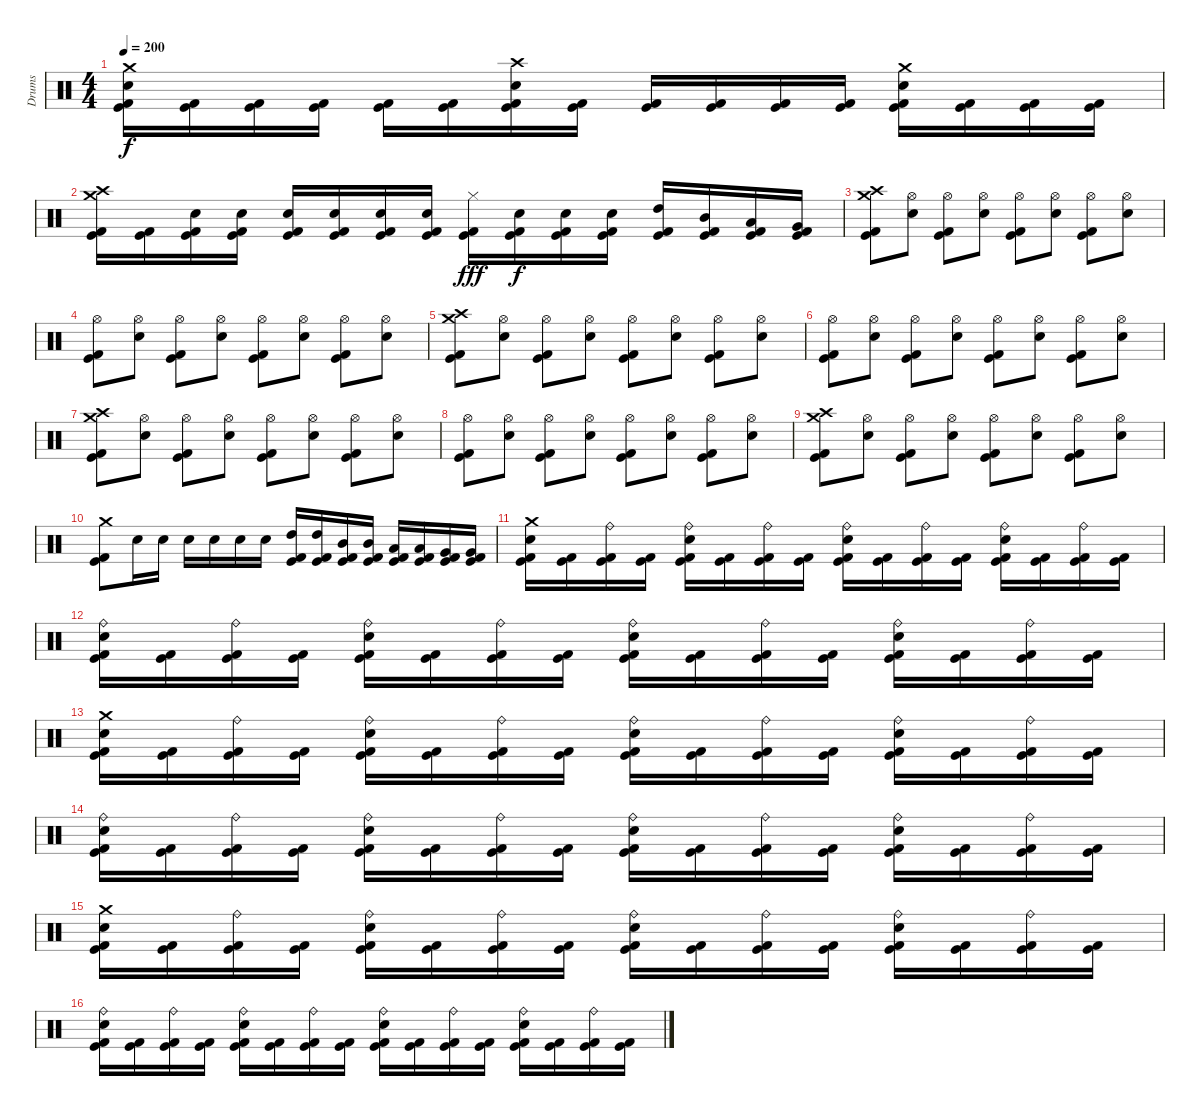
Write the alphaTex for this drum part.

\track ("Drums" "Drums") {instrument percussion}
\staff {score}
\articulation defaults
\ts (4 4)
\tempo 200
\clef neutral
\ks c
("Crash medium (hit)" "Electric Snare (hit)" "Kick (hit)" "Kick (hit) 2").16{dy f} ("Kick (hit)" "Kick (hit) 2").16 ("Kick (hit)" "Kick (hit) 2").16 ("Kick (hit)" "Kick (hit) 2").16 ("Kick (hit)" "Kick (hit) 2").16 ("Kick (hit)" "Kick (hit) 2").16 ("Crash high (hit)" "Electric Snare (hit)" "Kick (hit)" "Kick (hit) 2").16 ("Kick (hit)" "Kick (hit) 2").16 ("Kick (hit)" "Kick (hit) 2").16 ("Kick (hit)" "Kick (hit) 2").16 ("Kick (hit)" "Kick (hit) 2").16 ("Kick (hit)" "Kick (hit) 2").16 ("Crash medium (hit)" "Electric Snare (hit)" "Kick (hit)" "Kick (hit) 2").16 ("Kick (hit)" "Kick (hit) 2").16 ("Kick (hit)" "Kick (hit) 2").16 ("Kick (hit)" "Kick (hit) 2").16 |
("Crash medium (hit)" "Crash high (hit)" "Kick (hit)" "Kick (hit) 2").16 ("Kick (hit)" "Kick (hit) 2").16 ("Electric Snare (hit)" "Kick (hit)" "Kick (hit) 2").16 ("Electric Snare (hit)" "Kick (hit)" "Kick (hit) 2").16 ("Electric Snare (hit)" "Kick (hit)" "Kick (hit) 2").16 ("Electric Snare (hit)" "Kick (hit)" "Kick (hit) 2").16 ("Electric Snare (hit)" "Kick (hit)" "Kick (hit) 2").16 ("Electric Snare (hit)" "Kick (hit)" "Kick (hit) 2").16 ("Hi-Hat (closed)" "Kick (hit)" "Kick (hit) 2").16{dy fff} ("Electric Snare (hit)" "Kick (hit)" "Kick (hit) 2").16{dy f} ("Electric Snare (hit)" "Kick (hit)" "Kick (hit) 2").16 ("Electric Snare (hit)" "Kick (hit)" "Kick (hit) 2").16 ("High Tom (hit)" "Kick (hit)" "Kick (hit) 2").16 ("Mid Tom (hit)" "Kick (hit)" "Kick (hit) 2").16 ("Low Tom (hit)" "Kick (hit)" "Kick (hit) 2").16 ("Very Low Tom (hit)" "Kick (hit)" "Kick (hit) 2").16 |
("Crash medium (hit)" "Crash high (hit)" "Kick (hit)" "Kick (hit) 2").8 ("Hi-Hat (open)" "Electric Snare (hit)").8 ("Hi-Hat (open)" "Kick (hit)" "Kick (hit) 2").8 ("Hi-Hat (open)" "Electric Snare (hit)").8 ("Hi-Hat (open)" "Kick (hit)" "Kick (hit) 2").8 ("Hi-Hat (open)" "Electric Snare (hit)").8 ("Hi-Hat (open)" "Kick (hit)" "Kick (hit) 2").8 ("Hi-Hat (open)" "Electric Snare (hit)").8 |
("Hi-Hat (open)" "Kick (hit)" "Kick (hit) 2").8 ("Hi-Hat (open)" "Electric Snare (hit)").8 ("Hi-Hat (open)" "Kick (hit)" "Kick (hit) 2").8 ("Hi-Hat (open)" "Electric Snare (hit)").8 ("Hi-Hat (open)" "Kick (hit)" "Kick (hit) 2").8 ("Hi-Hat (open)" "Electric Snare (hit)").8 ("Hi-Hat (open)" "Kick (hit)" "Kick (hit) 2").8 ("Hi-Hat (open)" "Electric Snare (hit)").8 |
("Crash medium (hit)" "Crash high (hit)" "Kick (hit)" "Kick (hit) 2").8 ("Hi-Hat (open)" "Electric Snare (hit)").8 ("Hi-Hat (open)" "Kick (hit)" "Kick (hit) 2").8 ("Hi-Hat (open)" "Electric Snare (hit)").8 ("Hi-Hat (open)" "Kick (hit)" "Kick (hit) 2").8 ("Hi-Hat (open)" "Electric Snare (hit)").8 ("Hi-Hat (open)" "Kick (hit)" "Kick (hit) 2").8 ("Hi-Hat (open)" "Electric Snare (hit)").8 |
("Hi-Hat (open)" "Kick (hit)" "Kick (hit) 2").8 ("Hi-Hat (open)" "Electric Snare (hit)").8 ("Hi-Hat (open)" "Kick (hit)" "Kick (hit) 2").8 ("Hi-Hat (open)" "Electric Snare (hit)").8 ("Hi-Hat (open)" "Kick (hit)" "Kick (hit) 2").8 ("Hi-Hat (open)" "Electric Snare (hit)").8 ("Hi-Hat (open)" "Kick (hit)" "Kick (hit) 2").8 ("Hi-Hat (open)" "Electric Snare (hit)").8 |
("Crash medium (hit)" "Crash high (hit)" "Kick (hit)" "Kick (hit) 2").8 ("Hi-Hat (open)" "Electric Snare (hit)").8 ("Hi-Hat (open)" "Kick (hit)" "Kick (hit) 2").8 ("Hi-Hat (open)" "Electric Snare (hit)").8 ("Hi-Hat (open)" "Kick (hit)" "Kick (hit) 2").8 ("Hi-Hat (open)" "Electric Snare (hit)").8 ("Hi-Hat (open)" "Kick (hit)" "Kick (hit) 2").8 ("Hi-Hat (open)" "Electric Snare (hit)").8 |
("Hi-Hat (open)" "Kick (hit)" "Kick (hit) 2").8 ("Hi-Hat (open)" "Electric Snare (hit)").8 ("Hi-Hat (open)" "Kick (hit)" "Kick (hit) 2").8 ("Hi-Hat (open)" "Electric Snare (hit)").8 ("Hi-Hat (open)" "Kick (hit)" "Kick (hit) 2").8 ("Hi-Hat (open)" "Electric Snare (hit)").8 ("Hi-Hat (open)" "Kick (hit)" "Kick (hit) 2").8 ("Hi-Hat (open)" "Electric Snare (hit)").8 |
("Crash medium (hit)" "Crash high (hit)" "Kick (hit)" "Kick (hit) 2").8 ("Hi-Hat (open)" "Electric Snare (hit)").8 ("Hi-Hat (open)" "Kick (hit)" "Kick (hit) 2").8 ("Hi-Hat (open)" "Electric Snare (hit)").8 ("Hi-Hat (open)" "Kick (hit)" "Kick (hit) 2").8 ("Hi-Hat (open)" "Electric Snare (hit)").8 ("Hi-Hat (open)" "Kick (hit)" "Kick (hit) 2").8 ("Hi-Hat (open)" "Electric Snare (hit)").8 |
("Crash medium (hit)" "Kick (hit)" "Kick (hit) 2").8 "Electric Snare (hit)".16 "Electric Snare (hit)".16 "Electric Snare (hit)".16 "Electric Snare (hit)".16 "Electric Snare (hit)".16 "Electric Snare (hit)".16 ("High Tom (hit)" "Kick (hit)" "Kick (hit) 2").16 ("High Tom (hit)" "Kick (hit)" "Kick (hit) 2").16 ("Mid Tom (hit)" "Kick (hit)" "Kick (hit) 2").16 ("Mid Tom (hit)" "Kick (hit)" "Kick (hit) 2").16 ("Low Tom (hit)" "Kick (hit)" "Kick (hit) 2").16 ("Low Tom (hit)" "Kick (hit)" "Kick (hit) 2").16 ("Very Low Tom (hit)" "Kick (hit)" "Kick (hit) 2").16 ("Very Low Tom (hit)" "Kick (hit)" "Kick (hit) 2").16 |
("Crash medium (hit)" "Electric Snare (hit)" "Kick (hit)" "Kick (hit) 2").16 ("Kick (hit)" "Kick (hit) 2").16 ("Ride (bell)" "Kick (hit)" "Kick (hit) 2").16 ("Kick (hit)" "Kick (hit) 2").16 ("Ride (bell)" "Electric Snare (hit)" "Kick (hit)" "Kick (hit) 2").16 ("Kick (hit)" "Kick (hit) 2").16 ("Ride (bell)" "Kick (hit)" "Kick (hit) 2").16 ("Kick (hit)" "Kick (hit) 2").16 ("Ride (bell)" "Electric Snare (hit)" "Kick (hit)" "Kick (hit) 2").16 ("Kick (hit)" "Kick (hit) 2").16 ("Ride (bell)" "Kick (hit)" "Kick (hit) 2").16 ("Kick (hit)" "Kick (hit) 2").16 ("Ride (bell)" "Electric Snare (hit)" "Kick (hit)" "Kick (hit) 2").16 ("Kick (hit)" "Kick (hit) 2").16 ("Ride (bell)" "Kick (hit)" "Kick (hit) 2").16 ("Kick (hit)" "Kick (hit) 2").16 |
("Ride (bell)" "Electric Snare (hit)" "Kick (hit)" "Kick (hit) 2").16 ("Kick (hit)" "Kick (hit) 2").16 ("Ride (bell)" "Kick (hit)" "Kick (hit) 2").16 ("Kick (hit)" "Kick (hit) 2").16 ("Ride (bell)" "Electric Snare (hit)" "Kick (hit)" "Kick (hit) 2").16 ("Kick (hit)" "Kick (hit) 2").16 ("Ride (bell)" "Kick (hit)" "Kick (hit) 2").16 ("Kick (hit)" "Kick (hit) 2").16 ("Ride (bell)" "Electric Snare (hit)" "Kick (hit)" "Kick (hit) 2").16 ("Kick (hit)" "Kick (hit) 2").16 ("Ride (bell)" "Kick (hit)" "Kick (hit) 2").16 ("Kick (hit)" "Kick (hit) 2").16 ("Ride (bell)" "Electric Snare (hit)" "Kick (hit)" "Kick (hit) 2").16 ("Kick (hit)" "Kick (hit) 2").16 ("Ride (bell)" "Kick (hit)" "Kick (hit) 2").16 ("Kick (hit)" "Kick (hit) 2").16 |
("Crash medium (hit)" "Electric Snare (hit)" "Kick (hit)" "Kick (hit) 2").16 ("Kick (hit)" "Kick (hit) 2").16 ("Ride (bell)" "Kick (hit)" "Kick (hit) 2").16 ("Kick (hit)" "Kick (hit) 2").16 ("Ride (bell)" "Electric Snare (hit)" "Kick (hit)" "Kick (hit) 2").16 ("Kick (hit)" "Kick (hit) 2").16 ("Ride (bell)" "Kick (hit)" "Kick (hit) 2").16 ("Kick (hit)" "Kick (hit) 2").16 ("Ride (bell)" "Electric Snare (hit)" "Kick (hit)" "Kick (hit) 2").16 ("Kick (hit)" "Kick (hit) 2").16 ("Ride (bell)" "Kick (hit)" "Kick (hit) 2").16 ("Kick (hit)" "Kick (hit) 2").16 ("Ride (bell)" "Electric Snare (hit)" "Kick (hit)" "Kick (hit) 2").16 ("Kick (hit)" "Kick (hit) 2").16 ("Ride (bell)" "Kick (hit)" "Kick (hit) 2").16 ("Kick (hit)" "Kick (hit) 2").16 |
("Ride (bell)" "Electric Snare (hit)" "Kick (hit)" "Kick (hit) 2").16 ("Kick (hit)" "Kick (hit) 2").16 ("Ride (bell)" "Kick (hit)" "Kick (hit) 2").16 ("Kick (hit)" "Kick (hit) 2").16 ("Ride (bell)" "Electric Snare (hit)" "Kick (hit)" "Kick (hit) 2").16 ("Kick (hit)" "Kick (hit) 2").16 ("Ride (bell)" "Kick (hit)" "Kick (hit) 2").16 ("Kick (hit)" "Kick (hit) 2").16 ("Ride (bell)" "Electric Snare (hit)" "Kick (hit)" "Kick (hit) 2").16 ("Kick (hit)" "Kick (hit) 2").16 ("Ride (bell)" "Kick (hit)" "Kick (hit) 2").16 ("Kick (hit)" "Kick (hit) 2").16 ("Ride (bell)" "Electric Snare (hit)" "Kick (hit)" "Kick (hit) 2").16 ("Kick (hit)" "Kick (hit) 2").16 ("Ride (bell)" "Kick (hit)" "Kick (hit) 2").16 ("Kick (hit)" "Kick (hit) 2").16 |
("Crash medium (hit)" "Electric Snare (hit)" "Kick (hit)" "Kick (hit) 2").16 ("Kick (hit)" "Kick (hit) 2").16 ("Ride (bell)" "Kick (hit)" "Kick (hit) 2").16 ("Kick (hit)" "Kick (hit) 2").16 ("Ride (bell)" "Electric Snare (hit)" "Kick (hit)" "Kick (hit) 2").16 ("Kick (hit)" "Kick (hit) 2").16 ("Ride (bell)" "Kick (hit)" "Kick (hit) 2").16 ("Kick (hit)" "Kick (hit) 2").16 ("Ride (bell)" "Electric Snare (hit)" "Kick (hit)" "Kick (hit) 2").16 ("Kick (hit)" "Kick (hit) 2").16 ("Ride (bell)" "Kick (hit)" "Kick (hit) 2").16 ("Kick (hit)" "Kick (hit) 2").16 ("Ride (bell)" "Electric Snare (hit)" "Kick (hit)" "Kick (hit) 2").16 ("Kick (hit)" "Kick (hit) 2").16 ("Ride (bell)" "Kick (hit)" "Kick (hit) 2").16 ("Kick (hit)" "Kick (hit) 2").16 |
("Ride (bell)" "Electric Snare (hit)" "Kick (hit)" "Kick (hit) 2").16 ("Kick (hit)" "Kick (hit) 2").16 ("Ride (bell)" "Kick (hit)" "Kick (hit) 2").16 ("Kick (hit)" "Kick (hit) 2").16 ("Ride (bell)" "Electric Snare (hit)" "Kick (hit)" "Kick (hit) 2").16 ("Kick (hit)" "Kick (hit) 2").16 ("Ride (bell)" "Kick (hit)" "Kick (hit) 2").16 ("Kick (hit)" "Kick (hit) 2").16 ("Ride (bell)" "Electric Snare (hit)" "Kick (hit)" "Kick (hit) 2").16 ("Kick (hit)" "Kick (hit) 2").16 ("Ride (bell)" "Kick (hit)" "Kick (hit) 2").16 ("Kick (hit)" "Kick (hit) 2").16 ("Ride (bell)" "Electric Snare (hit)" "Kick (hit)" "Kick (hit) 2").16 ("Kick (hit)" "Kick (hit) 2").16 ("Ride (bell)" "Kick (hit)" "Kick (hit) 2").16 ("Kick (hit)" "Kick (hit) 2").16
